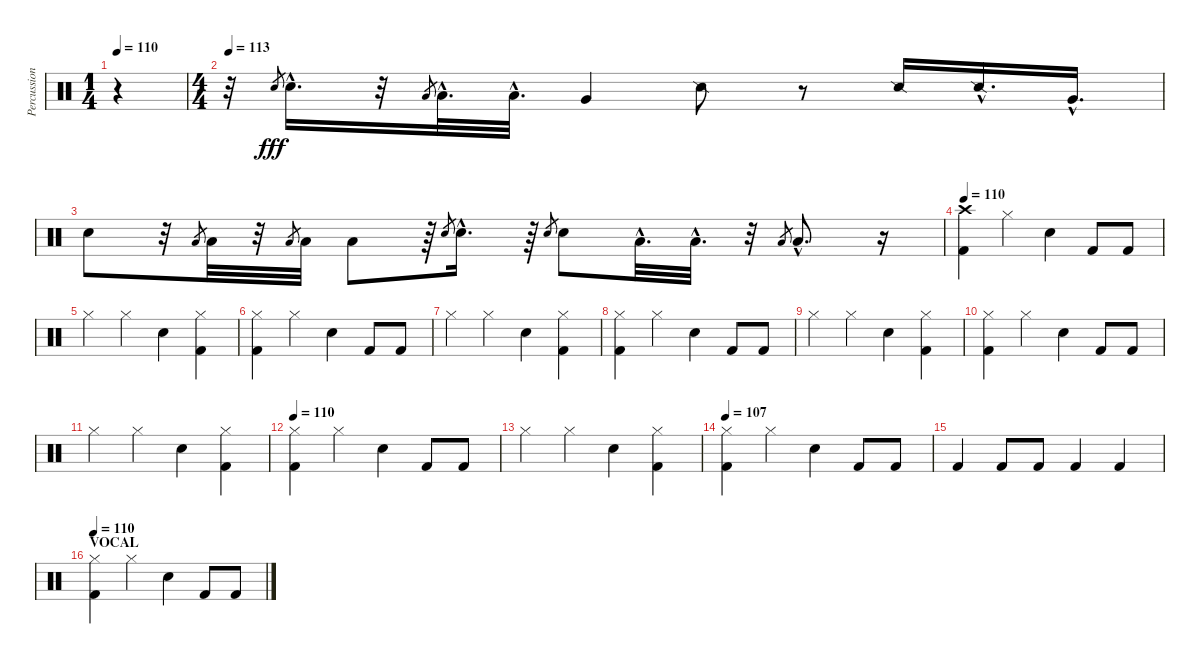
\track ("Percussion" "Percussion") {instrument percussion}
\staff {score}
\articulation defaults
\ts (1 4)
\tempo 110
\tempo 140
\tempo 110
\clef neutral
\ks c
r.4{dy fff} |
\ts (4 4)
\tempo 113
r.32 "Electric Snare (hit)".8{gr} "Electric Snare (hit)"{hac}.16{d} r.32 "Low Floor Tom (hit)".8{gr} "Low Floor Tom (hit)"{hac}.32{d} "Low Floor Tom (hit)"{hac}.32{d} "Very Low Tom (hit)".4 "Snare (side stick) 2".8 r.8 "Snare (side stick) 2".16 "Snare (side stick) 2"{hac}.16{d} "Very Low Tom (hit)"{hac}.16{d} |
"Electric Snare (hit)".8 r.32 "Low Floor Tom (hit)".8{gr} "Low Floor Tom (hit)".32 r.32 "Low Floor Tom (hit)".8{gr} "Low Floor Tom (hit)".32 "Low Floor Tom (hit)".8 r.64 "Electric Snare (hit)".8{gr} "Electric Snare (hit)"{hac}.16{d} r.64 "Electric Snare (hit)".8{gr} "Electric Snare (hit)".8 "Low Floor Tom (hit)"{hac}.32{d} "Low Floor Tom (hit)"{hac}.32{d} r.32 "Low Floor Tom (hit)".8{gr} "Low Floor Tom (hit)"{hac}.8{d} r.16 |
\tempo 110
("Kick (hit) 2" "Crash high (hit)").4 "Hi-Hat (closed)".4 "Electric Snare (hit)".4 "Kick (hit) 2".8 "Kick (hit) 2".8 |
"Hi-Hat (closed)".4 "Hi-Hat (closed)".4 "Electric Snare (hit)".4 ("Kick (hit) 2" "Hi-Hat (closed)").4 |
("Kick (hit) 2" "Hi-Hat (closed)").4 "Hi-Hat (closed)".4 "Electric Snare (hit)".4 "Kick (hit) 2".8 "Kick (hit) 2".8 |
"Hi-Hat (closed)".4 "Hi-Hat (closed)".4 "Electric Snare (hit)".4 ("Kick (hit) 2" "Hi-Hat (closed)").4 |
("Kick (hit) 2" "Hi-Hat (closed)").4 "Hi-Hat (closed)".4 "Electric Snare (hit)".4 "Kick (hit) 2".8 "Kick (hit) 2".8 |
"Hi-Hat (closed)".4 "Hi-Hat (closed)".4 "Electric Snare (hit)".4 ("Kick (hit) 2" "Hi-Hat (closed)").4 |
("Kick (hit) 2" "Hi-Hat (closed)").4 "Hi-Hat (closed)".4 "Electric Snare (hit)".4 "Kick (hit) 2".8 "Kick (hit) 2".8 |
"Hi-Hat (closed)".4 "Hi-Hat (closed)".4 "Electric Snare (hit)".4 ("Kick (hit) 2" "Hi-Hat (closed)").4 |
\tempo 110
("Kick (hit) 2" "Hi-Hat (closed)").4 "Hi-Hat (closed)".4 "Electric Snare (hit)".4 "Kick (hit) 2".8 "Kick (hit) 2".8 |
"Hi-Hat (closed)".4 "Hi-Hat (closed)".4 "Electric Snare (hit)".4 ("Kick (hit) 2" "Hi-Hat (closed)").4 |
\tempo 107
("Kick (hit) 2" "Hi-Hat (closed)").4 "Hi-Hat (closed)".4 "Electric Snare (hit)".4 "Kick (hit) 2".8 "Kick (hit) 2".8 |
"Kick (hit) 2".4 "Kick (hit) 2".8 "Kick (hit) 2".8 "Kick (hit) 2".4 "Kick (hit) 2".4 |
\section ("" "VOCAL")
\tempo 110
("Kick (hit) 2" "Hi-Hat (closed)").4 "Hi-Hat (closed)".4 "Electric Snare (hit)".4 "Kick (hit) 2".8 "Kick (hit) 2".8
